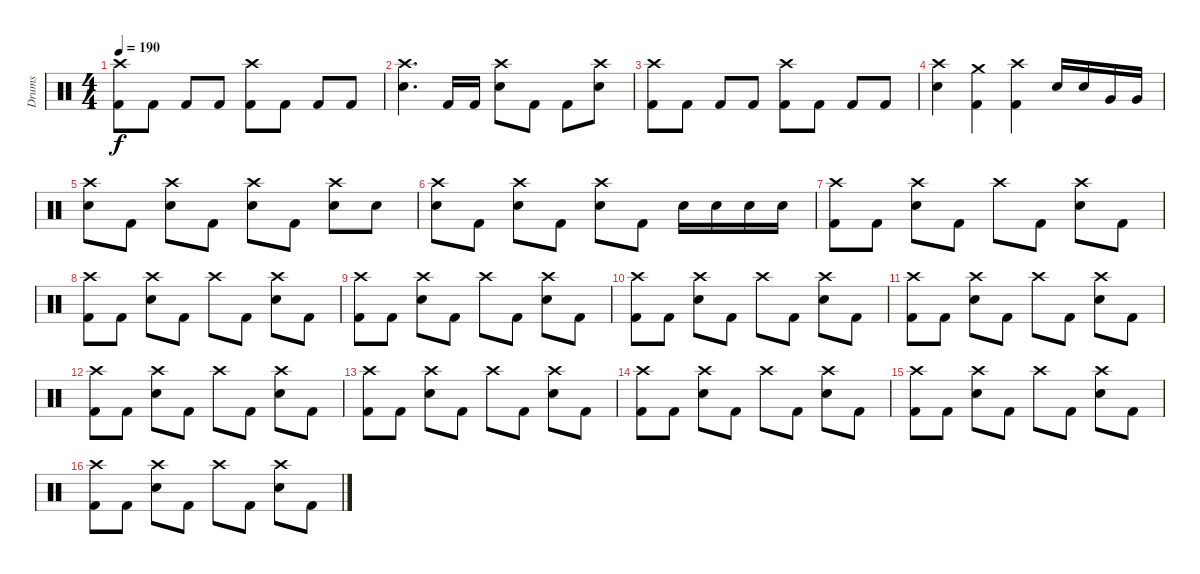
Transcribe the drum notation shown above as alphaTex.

\track ("Drums" "Drums") {instrument percussion}
\staff {score}
\articulation defaults
\ts (4 4)
\tempo 190
\clef neutral
\ks c
("Crash high (hit)" "Kick (hit) 2").8{dy f} "Kick (hit) 2".8 "Kick (hit) 2".8 "Kick (hit) 2".8 ("Crash high (hit)" "Kick (hit) 2").8 "Kick (hit) 2".8 "Kick (hit) 2".8 "Kick (hit) 2".8 |
("Crash high (hit)" "Electric Snare (hit)").4{d} "Kick (hit) 2".16 "Kick (hit) 2".16 ("Crash high (hit)" "Electric Snare (hit)").8 "Kick (hit) 2".8 "Kick (hit) 2".8 ("Crash high (hit)" "Electric Snare (hit)").8 |
("Crash high (hit)" "Kick (hit) 2").8 "Kick (hit) 2".8 "Kick (hit) 2".8 "Kick (hit) 2".8 ("Crash high (hit)" "Kick (hit) 2").8 "Kick (hit) 2".8 "Kick (hit) 2".8 "Kick (hit) 2".8 |
("Crash high (hit)" "Electric Snare (hit)").4 ("Crash medium (hit)" "Kick (hit) 2").4 ("Crash high (hit)" "Kick (hit) 2").4 "Electric Snare (hit)".16 "Electric Snare (hit)".16 "Very Low Tom (hit)".16 "Very Low Tom (hit)".16 |
("Crash high (hit)" "Electric Snare (hit)").8 "Kick (hit) 2".8 ("Crash high (hit)" "Electric Snare (hit)").8 "Kick (hit) 2".8 ("Crash high (hit)" "Electric Snare (hit)").8 "Kick (hit) 2".8 ("Crash high (hit)" "Electric Snare (hit)").8 "Electric Snare (hit)".8 |
("Crash high (hit)" "Electric Snare (hit)").8 "Kick (hit) 2".8 ("Crash high (hit)" "Electric Snare (hit)").8 "Kick (hit) 2".8 ("Crash high (hit)" "Electric Snare (hit)").8 "Kick (hit) 2".8 "Electric Snare (hit)".16 "Electric Snare (hit)".16 "Electric Snare (hit)".16 "Electric Snare (hit)".16 |
("Crash high (hit)" "Kick (hit) 2").8 "Kick (hit) 2".8 ("Crash high (hit)" "Electric Snare (hit)").8 "Kick (hit) 2".8 "Crash high (hit)".8 "Kick (hit) 2".8 ("Crash high (hit)" "Electric Snare (hit)").8 "Kick (hit) 2".8 |
("Crash high (hit)" "Kick (hit) 2").8 "Kick (hit) 2".8 ("Crash high (hit)" "Electric Snare (hit)").8 "Kick (hit) 2".8 "Crash high (hit)".8 "Kick (hit) 2".8 ("Crash high (hit)" "Electric Snare (hit)").8 "Kick (hit) 2".8 |
("Crash high (hit)" "Kick (hit) 2").8 "Kick (hit) 2".8 ("Crash high (hit)" "Electric Snare (hit)").8 "Kick (hit) 2".8 "Crash high (hit)".8 "Kick (hit) 2".8 ("Crash high (hit)" "Electric Snare (hit)").8 "Kick (hit) 2".8 |
("Crash high (hit)" "Kick (hit) 2").8 "Kick (hit) 2".8 ("Crash high (hit)" "Electric Snare (hit)").8 "Kick (hit) 2".8 "Crash high (hit)".8 "Kick (hit) 2".8 ("Crash high (hit)" "Electric Snare (hit)").8 "Kick (hit) 2".8 |
("Crash high (hit)" "Kick (hit) 2").8 "Kick (hit) 2".8 ("Crash high (hit)" "Electric Snare (hit)").8 "Kick (hit) 2".8 "Crash high (hit)".8 "Kick (hit) 2".8 ("Crash high (hit)" "Electric Snare (hit)").8 "Kick (hit) 2".8 |
("Crash high (hit)" "Kick (hit) 2").8 "Kick (hit) 2".8 ("Crash high (hit)" "Electric Snare (hit)").8 "Kick (hit) 2".8 "Crash high (hit)".8 "Kick (hit) 2".8 ("Crash high (hit)" "Electric Snare (hit)").8 "Kick (hit) 2".8 |
("Crash high (hit)" "Kick (hit) 2").8 "Kick (hit) 2".8 ("Crash high (hit)" "Electric Snare (hit)").8 "Kick (hit) 2".8 "Crash high (hit)".8 "Kick (hit) 2".8 ("Crash high (hit)" "Electric Snare (hit)").8 "Kick (hit) 2".8 |
("Crash high (hit)" "Kick (hit) 2").8 "Kick (hit) 2".8 ("Crash high (hit)" "Electric Snare (hit)").8 "Kick (hit) 2".8 "Crash high (hit)".8 "Kick (hit) 2".8 ("Crash high (hit)" "Electric Snare (hit)").8 "Kick (hit) 2".8 |
("Crash high (hit)" "Kick (hit) 2").8 "Kick (hit) 2".8 ("Crash high (hit)" "Electric Snare (hit)").8 "Kick (hit) 2".8 "Crash high (hit)".8 "Kick (hit) 2".8 ("Crash high (hit)" "Electric Snare (hit)").8 "Kick (hit) 2".8 |
("Crash high (hit)" "Kick (hit) 2").8 "Kick (hit) 2".8 ("Crash high (hit)" "Electric Snare (hit)").8 "Kick (hit) 2".8 "Crash high (hit)".8 "Kick (hit) 2".8 ("Crash high (hit)" "Electric Snare (hit)").8 "Kick (hit) 2".8
